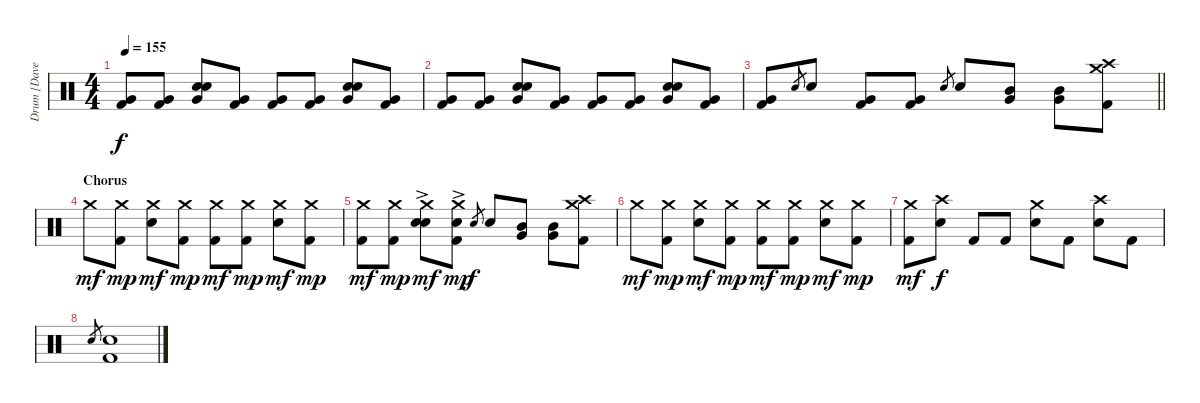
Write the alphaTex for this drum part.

\track ("Drum [Dave Grohl]" "Drum [Dave") {instrument percussion}
\staff {score}
\articulation defaults
\ts (4 4)
\tempo 155
\clef neutral
\ks c
("Very Low Tom (hit)" "Kick (hit) 2").8{dy f} ("Very Low Tom (hit)" "Kick (hit) 2").8 ("Hand Clap (hit)" "Very Low Tom (hit)" "Snare (hit) 2").8 ("Very Low Tom (hit)" "Kick (hit) 2").8 ("Very Low Tom (hit)" "Kick (hit) 2").8 ("Very Low Tom (hit)" "Kick (hit) 2").8 ("Hand Clap (hit)" "Very Low Tom (hit)" "Snare (hit) 2").8 ("Very Low Tom (hit)" "Kick (hit) 2").8 |
("Very Low Tom (hit)" "Kick (hit) 2").8 ("Very Low Tom (hit)" "Kick (hit) 2").8 ("Hand Clap (hit)" "Very Low Tom (hit)" "Snare (hit) 2").8 ("Very Low Tom (hit)" "Kick (hit) 2").8 ("Very Low Tom (hit)" "Kick (hit) 2").8 ("Very Low Tom (hit)" "Kick (hit) 2").8 ("Hand Clap (hit)" "Very Low Tom (hit)" "Snare (hit) 2").8 ("Very Low Tom (hit)" "Kick (hit) 2").8 |
\barLineRight lightlight
("Very Low Tom (hit)" "Kick (hit) 2").8 "Snare (hit) 2".8{gr} "Snare (hit) 2".8 ("Very Low Tom (hit)" "Kick (hit) 2").8 ("Very Low Tom (hit)" "Kick (hit) 2").8 "Snare (hit) 2".8{gr} "Snare (hit) 2".8 ("Mid Tom (hit)" "Very Low Tom (hit)").8 ("Mid Tom (hit)" "Very Low Tom (hit)").8 ("Crash high (hit)" "Crash medium (hit)" "Kick (hit) 2").8 |
\section ("" "Chorus")
"Crash medium (hit)".8{dy mf} ("Crash medium (hit)" "Kick (hit) 2").8{dy mp} ("Crash medium (hit)" "Snare (hit) 2").8{dy mf} ("Crash medium (hit)" "Kick (hit) 2").8{dy mp} ("Crash medium (hit)" "Kick (hit) 2").8{dy mf} ("Crash medium (hit)" "Kick (hit) 2").8{dy mp} ("Crash medium (hit)" "Snare (hit) 2").8{dy mf} ("Crash medium (hit)" "Kick (hit) 2").8{dy mp} |
("Crash medium (hit)" "Kick (hit) 2").8{dy mf} ("Crash medium (hit)" "Kick (hit) 2").8{dy mp} ("Hand Clap (hit)"{ac} "Crash medium (hit)" "Snare (hit) 2").8{dy mf} ("Hand Clap (hit)"{ac} "Crash medium (hit)" "Kick (hit) 2").8{dy mp} "Snare (hit) 2".8{gr dy f} "Snare (hit) 2".8 ("Mid Tom (hit)" "Very Low Tom (hit)").8 ("Mid Tom (hit)" "Very Low Tom (hit)").8 ("Crash high (hit)" "Crash medium (hit)" "Kick (hit) 2").8 |
"Crash medium (hit)".8{dy mf} ("Crash medium (hit)" "Kick (hit) 2").8{dy mp} ("Crash medium (hit)" "Snare (hit) 2").8{dy mf} ("Crash medium (hit)" "Kick (hit) 2").8{dy mp} ("Crash medium (hit)" "Kick (hit) 2").8{dy mf} ("Crash medium (hit)" "Kick (hit) 2").8{dy mp} ("Crash medium (hit)" "Snare (hit) 2").8{dy mf} ("Crash medium (hit)" "Kick (hit) 2").8{dy mp} |
("Crash medium (hit)" "Kick (hit) 2").8{dy mf} ("Crash high (hit)" "Snare (hit) 2").8{dy f} "Kick (hit) 2".8 "Kick (hit) 2".8 ("Crash medium (hit)" "Snare (hit) 2").8 "Kick (hit) 2".8 ("Crash high (hit)" "Snare (hit) 2").8 "Kick (hit) 2".8 |
"Snare (hit) 2".8{gr} ("Snare (hit) 2" "Kick (hit) 2").1
